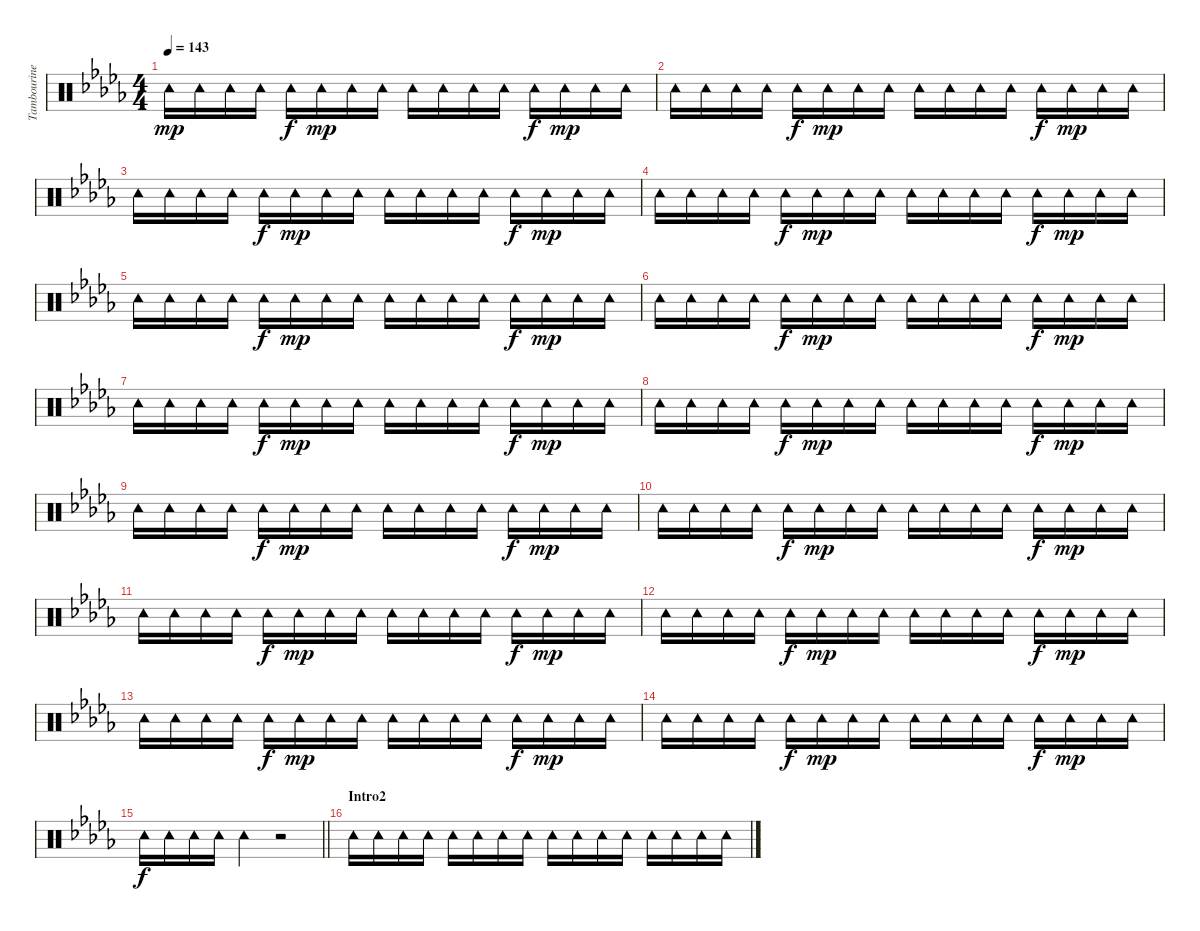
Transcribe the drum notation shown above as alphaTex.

\track ("Tambourine" "Tambourine") {instrument percussion}
\staff {score}
\articulation defaults
\ts (4 4)
\tempo 143
\clef neutral
\ks db "Tambourine (hit)".16{dy mp} "Tambourine (hit)".16 "Tambourine (hit)".16 "Tambourine (hit)".16 "Tambourine (hit)".16{dy f} "Tambourine (hit)".16{dy mp} "Tambourine (hit)".16 "Tambourine (hit)".16 "Tambourine (hit)".16 "Tambourine (hit)".16 "Tambourine (hit)".16 "Tambourine (hit)".16 "Tambourine (hit)".16{dy f} "Tambourine (hit)".16{dy mp} "Tambourine (hit)".16 "Tambourine (hit)".16
|
"Tambourine (hit)".16 "Tambourine (hit)".16 "Tambourine (hit)".16 "Tambourine (hit)".16 "Tambourine (hit)".16{dy f} "Tambourine (hit)".16{dy mp} "Tambourine (hit)".16 "Tambourine (hit)".16 "Tambourine (hit)".16 "Tambourine (hit)".16 "Tambourine (hit)".16 "Tambourine (hit)".16 "Tambourine (hit)".16{dy f} "Tambourine (hit)".16{dy mp} "Tambourine (hit)".16 "Tambourine (hit)".16 |
"Tambourine (hit)".16 "Tambourine (hit)".16 "Tambourine (hit)".16 "Tambourine (hit)".16 "Tambourine (hit)".16{dy f} "Tambourine (hit)".16{dy mp} "Tambourine (hit)".16 "Tambourine (hit)".16 "Tambourine (hit)".16 "Tambourine (hit)".16 "Tambourine (hit)".16 "Tambourine (hit)".16 "Tambourine (hit)".16{dy f} "Tambourine (hit)".16{dy mp} "Tambourine (hit)".16 "Tambourine (hit)".16 |
"Tambourine (hit)".16 "Tambourine (hit)".16 "Tambourine (hit)".16 "Tambourine (hit)".16 "Tambourine (hit)".16{dy f} "Tambourine (hit)".16{dy mp} "Tambourine (hit)".16 "Tambourine (hit)".16 "Tambourine (hit)".16 "Tambourine (hit)".16 "Tambourine (hit)".16 "Tambourine (hit)".16 "Tambourine (hit)".16{dy f} "Tambourine (hit)".16{dy mp} "Tambourine (hit)".16 "Tambourine (hit)".16 |
"Tambourine (hit)".16 "Tambourine (hit)".16 "Tambourine (hit)".16 "Tambourine (hit)".16 "Tambourine (hit)".16{dy f} "Tambourine (hit)".16{dy mp} "Tambourine (hit)".16 "Tambourine (hit)".16 "Tambourine (hit)".16 "Tambourine (hit)".16 "Tambourine (hit)".16 "Tambourine (hit)".16 "Tambourine (hit)".16{dy f} "Tambourine (hit)".16{dy mp} "Tambourine (hit)".16 "Tambourine (hit)".16 |
"Tambourine (hit)".16 "Tambourine (hit)".16 "Tambourine (hit)".16 "Tambourine (hit)".16 "Tambourine (hit)".16{dy f} "Tambourine (hit)".16{dy mp} "Tambourine (hit)".16 "Tambourine (hit)".16 "Tambourine (hit)".16 "Tambourine (hit)".16 "Tambourine (hit)".16 "Tambourine (hit)".16 "Tambourine (hit)".16{dy f} "Tambourine (hit)".16{dy mp} "Tambourine (hit)".16 "Tambourine (hit)".16 |
"Tambourine (hit)".16 "Tambourine (hit)".16 "Tambourine (hit)".16 "Tambourine (hit)".16 "Tambourine (hit)".16{dy f} "Tambourine (hit)".16{dy mp} "Tambourine (hit)".16 "Tambourine (hit)".16 "Tambourine (hit)".16 "Tambourine (hit)".16 "Tambourine (hit)".16 "Tambourine (hit)".16 "Tambourine (hit)".16{dy f} "Tambourine (hit)".16{dy mp} "Tambourine (hit)".16 "Tambourine (hit)".16 |
"Tambourine (hit)".16 "Tambourine (hit)".16 "Tambourine (hit)".16 "Tambourine (hit)".16 "Tambourine (hit)".16{dy f} "Tambourine (hit)".16{dy mp} "Tambourine (hit)".16 "Tambourine (hit)".16 "Tambourine (hit)".16 "Tambourine (hit)".16 "Tambourine (hit)".16 "Tambourine (hit)".16 "Tambourine (hit)".16{dy f} "Tambourine (hit)".16{dy mp} "Tambourine (hit)".16 "Tambourine (hit)".16 |
"Tambourine (hit)".16 "Tambourine (hit)".16 "Tambourine (hit)".16 "Tambourine (hit)".16 "Tambourine (hit)".16{dy f} "Tambourine (hit)".16{dy mp} "Tambourine (hit)".16 "Tambourine (hit)".16 "Tambourine (hit)".16 "Tambourine (hit)".16 "Tambourine (hit)".16 "Tambourine (hit)".16 "Tambourine (hit)".16{dy f} "Tambourine (hit)".16{dy mp} "Tambourine (hit)".16 "Tambourine (hit)".16 |
"Tambourine (hit)".16 "Tambourine (hit)".16 "Tambourine (hit)".16 "Tambourine (hit)".16 "Tambourine (hit)".16{dy f} "Tambourine (hit)".16{dy mp} "Tambourine (hit)".16 "Tambourine (hit)".16 "Tambourine (hit)".16 "Tambourine (hit)".16 "Tambourine (hit)".16 "Tambourine (hit)".16 "Tambourine (hit)".16{dy f} "Tambourine (hit)".16{dy mp} "Tambourine (hit)".16 "Tambourine (hit)".16 |
"Tambourine (hit)".16 "Tambourine (hit)".16 "Tambourine (hit)".16 "Tambourine (hit)".16 "Tambourine (hit)".16{dy f} "Tambourine (hit)".16{dy mp} "Tambourine (hit)".16 "Tambourine (hit)".16 "Tambourine (hit)".16 "Tambourine (hit)".16 "Tambourine (hit)".16 "Tambourine (hit)".16 "Tambourine (hit)".16{dy f} "Tambourine (hit)".16{dy mp} "Tambourine (hit)".16 "Tambourine (hit)".16 |
"Tambourine (hit)".16 "Tambourine (hit)".16 "Tambourine (hit)".16 "Tambourine (hit)".16 "Tambourine (hit)".16{dy f} "Tambourine (hit)".16{dy mp} "Tambourine (hit)".16 "Tambourine (hit)".16 "Tambourine (hit)".16 "Tambourine (hit)".16 "Tambourine (hit)".16 "Tambourine (hit)".16 "Tambourine (hit)".16{dy f} "Tambourine (hit)".16{dy mp} "Tambourine (hit)".16 "Tambourine (hit)".16 |
"Tambourine (hit)".16 "Tambourine (hit)".16 "Tambourine (hit)".16 "Tambourine (hit)".16 "Tambourine (hit)".16{dy f} "Tambourine (hit)".16{dy mp} "Tambourine (hit)".16 "Tambourine (hit)".16 "Tambourine (hit)".16 "Tambourine (hit)".16 "Tambourine (hit)".16 "Tambourine (hit)".16 "Tambourine (hit)".16{dy f} "Tambourine (hit)".16{dy mp} "Tambourine (hit)".16 "Tambourine (hit)".16 |
"Tambourine (hit)".16 "Tambourine (hit)".16 "Tambourine (hit)".16 "Tambourine (hit)".16 "Tambourine (hit)".16{dy f} "Tambourine (hit)".16{dy mp} "Tambourine (hit)".16 "Tambourine (hit)".16 "Tambourine (hit)".16 "Tambourine (hit)".16 "Tambourine (hit)".16 "Tambourine (hit)".16 "Tambourine (hit)".16{dy f} "Tambourine (hit)".16{dy mp} "Tambourine (hit)".16 "Tambourine (hit)".16 |
\barLineRight lightlight "Tambourine (hit)".16{dy f} "Tambourine (hit)".16 "Tambourine (hit)".16 "Tambourine (hit)".16 "Tambourine (hit)".4
r.2 |
\section ("" "Intro2")
"Tambourine (hit)".16 "Tambourine (hit)".16 "Tambourine (hit)".16 "Tambourine (hit)".16 "Tambourine (hit)".16 "Tambourine (hit)".16 "Tambourine (hit)".16 "Tambourine (hit)".16 "Tambourine (hit)".16 "Tambourine (hit)".16 "Tambourine (hit)".16 "Tambourine (hit)".16 "Tambourine (hit)".16 "Tambourine (hit)".16 "Tambourine (hit)".16 "Tambourine (hit)".16
